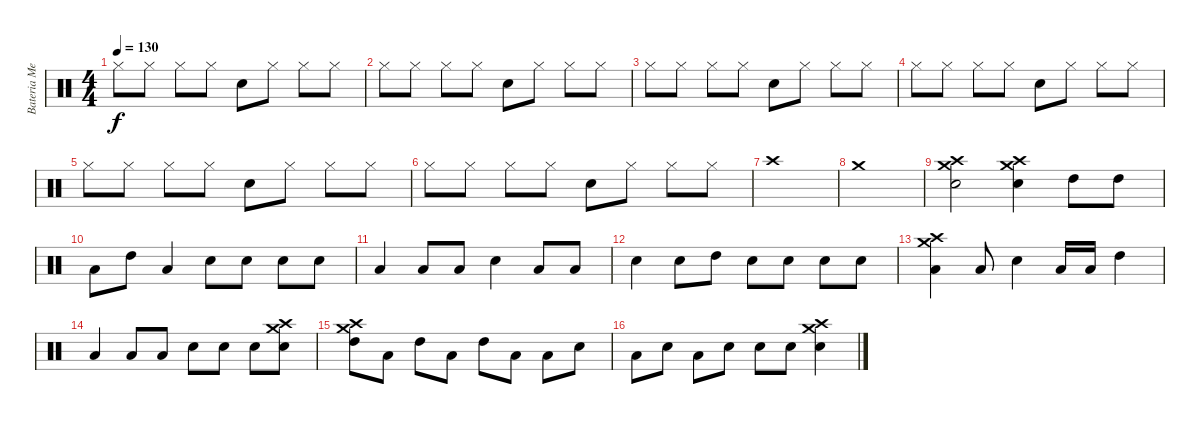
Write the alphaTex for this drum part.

\track ("Bateria Men" "Bateria Me") {instrument percussion}
\staff {score}
\articulation defaults
\ts (4 4)
\tempo 130
\clef neutral
\ks c "Hi-Hat (closed)".8{dy f} "Hi-Hat (closed)".8 "Hi-Hat (closed)".8 "Hi-Hat (closed)".8 "Electric Snare (hit)".8 "Hi-Hat (closed)".8 "Hi-Hat (closed)".8 "Hi-Hat (closed)".8
|
"Hi-Hat (closed)".8 "Hi-Hat (closed)".8 "Hi-Hat (closed)".8 "Hi-Hat (closed)".8 "Electric Snare (hit)".8 "Hi-Hat (closed)".8 "Hi-Hat (closed)".8 "Hi-Hat (closed)".8 |
"Hi-Hat (closed)".8 "Hi-Hat (closed)".8 "Hi-Hat (closed)".8 "Hi-Hat (closed)".8 "Electric Snare (hit)".8 "Hi-Hat (closed)".8 "Hi-Hat (closed)".8 "Hi-Hat (closed)".8 |
"Hi-Hat (closed)".8 "Hi-Hat (closed)".8 "Hi-Hat (closed)".8 "Hi-Hat (closed)".8 "Electric Snare (hit)".8 "Hi-Hat (closed)".8 "Hi-Hat (closed)".8 "Hi-Hat (closed)".8 |
"Hi-Hat (closed)".8 "Hi-Hat (closed)".8 "Hi-Hat (closed)".8 "Hi-Hat (closed)".8 "Electric Snare (hit)".8 "Hi-Hat (closed)".8 "Hi-Hat (closed)".8 "Hi-Hat (closed)".8 |
"Hi-Hat (closed)".8 "Hi-Hat (closed)".8 "Hi-Hat (closed)".8 "Hi-Hat (closed)".8 "Electric Snare (hit)".8 "Hi-Hat (closed)".8 "Hi-Hat (closed)".8 "Hi-Hat (closed)".8 |
"Crash high (hit)".1 |
"Crash medium (hit)".1 |
("Crash high (hit)" "Crash medium (hit)" "Electric Snare (hit)").2 ("Crash high (hit)" "Crash medium (hit)" "Electric Snare (hit)").4 "High Tom (hit)".8 "High Tom (hit)".8 |
"Low Floor Tom (hit)".8 "High Tom (hit)".8 "Low Floor Tom (hit)".4 "Electric Snare (hit)".8 "Electric Snare (hit)".8 "Electric Snare (hit)".8 "Electric Snare (hit)".8 |
"Low Floor Tom (hit)".4 "Low Floor Tom (hit)".8 "Low Floor Tom (hit)".8 "Electric Snare (hit)".4 "Low Floor Tom (hit)".8 "Low Floor Tom (hit)".8 |
"Electric Snare (hit)".4 "Electric Snare (hit)".8 "High Tom (hit)".8 "Electric Snare (hit)".8 "Electric Snare (hit)".8 "Electric Snare (hit)".8 "Electric Snare (hit)".8 |
("Crash medium (hit)" "Crash high (hit)" "Low Floor Tom (hit)").4 "Low Floor Tom (hit)".8 "Electric Snare (hit)".4 "Low Floor Tom (hit)".16 "Low Floor Tom (hit)".16 "High Tom (hit)".4 |
"Low Floor Tom (hit)".4 "Low Floor Tom (hit)".8 "Low Floor Tom (hit)".8 "Electric Snare (hit)".8 "Electric Snare (hit)".8 "Electric Snare (hit)".8 ("Crash high (hit)" "Crash medium (hit)" "Electric Snare (hit)").8 |
("Crash high (hit)" "Crash medium (hit)" "High Tom (hit)").8 "Low Floor Tom (hit)".8 "High Tom (hit)".8 "Low Floor Tom (hit)".8 "High Tom (hit)".8 "Low Floor Tom (hit)".8 "Low Floor Tom (hit)".8 "Electric Snare (hit)".8 |
"Low Floor Tom (hit)".8 "Electric Snare (hit)".8 "Low Floor Tom (hit)".8 "Electric Snare (hit)".8 "Electric Snare (hit)".8 "Electric Snare (hit)".8 ("Crash medium (hit)" "Crash high (hit)" "Electric Snare (hit)").4
